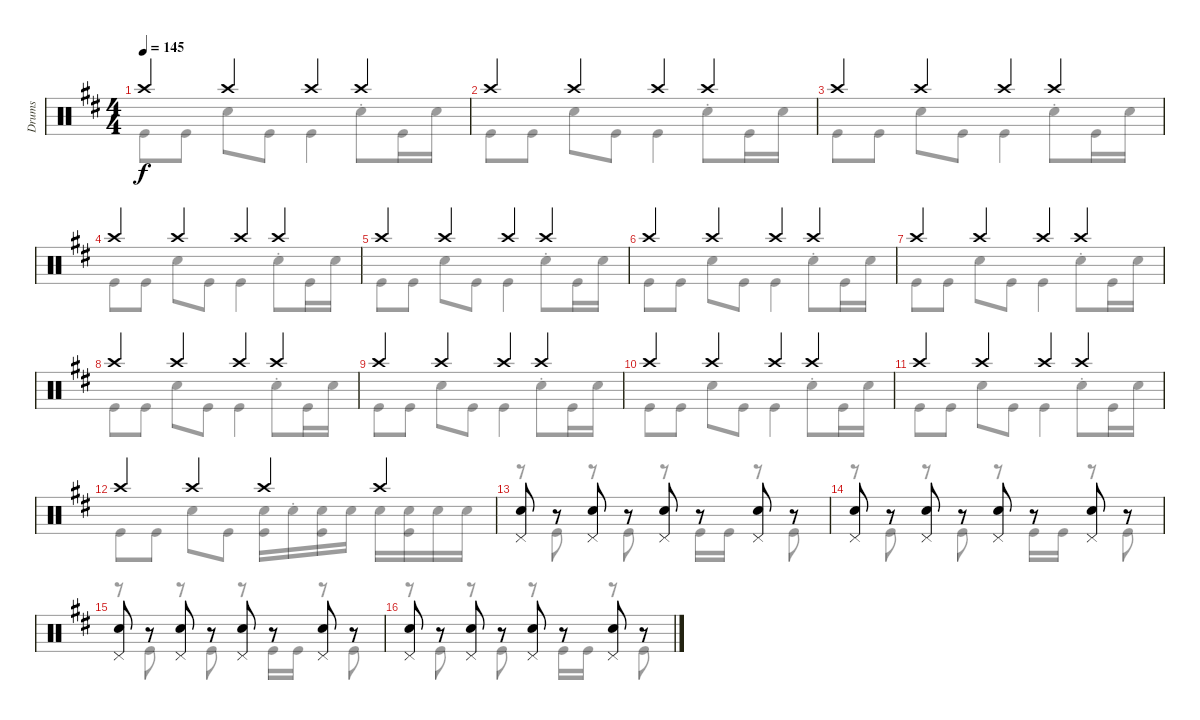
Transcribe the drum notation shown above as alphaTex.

\track ("Drums" "Drums") {instrument percussion}
\staff {score}
\articulation defaults
\voice
\ts (4 4)
\tempo 145
\clef neutral
\ks d "Crash high (hit)".4{dy f} "Crash high (hit)".4 "Crash high (hit)".4 "Crash high (hit)".4
|
"Crash high (hit)".4 "Crash high (hit)".4 "Crash high (hit)".4 "Crash high (hit)".4 |
"Crash high (hit)".4 "Crash high (hit)".4 "Crash high (hit)".4 "Crash high (hit)".4 |
"Crash high (hit)".4 "Crash high (hit)".4 "Crash high (hit)".4 "Crash high (hit)".4 |
"Crash high (hit)".4 "Crash high (hit)".4 "Crash high (hit)".4 "Crash high (hit)".4 |
"Crash high (hit)".4 "Crash high (hit)".4 "Crash high (hit)".4 "Crash high (hit)".4 |
"Crash high (hit)".4 "Crash high (hit)".4 "Crash high (hit)".4 "Crash high (hit)".4 |
"Crash high (hit)".4 "Crash high (hit)".4 "Crash high (hit)".4 "Crash high (hit)".4 |
"Crash high (hit)".4 "Crash high (hit)".4 "Crash high (hit)".4 "Crash high (hit)".4 |
"Crash high (hit)".4 "Crash high (hit)".4 "Crash high (hit)".4 "Crash high (hit)".4 |
"Crash high (hit)".4 "Crash high (hit)".4 "Crash high (hit)".4 "Crash high (hit)".4 |
"Crash high (hit)".4 "Crash high (hit)".4 "Crash high (hit)".4 "Crash high (hit)".4 |
("Pedal Hi-Hat (hit)" "Electric Snare (hit)").8 r.8 ("Pedal Hi-Hat (hit)" "Electric Snare (hit)").8 r.8 ("Pedal Hi-Hat (hit)" "Electric Snare (hit)").8 r.8 ("Pedal Hi-Hat (hit)" "Electric Snare (hit)").8 r.8 |
("Pedal Hi-Hat (hit)" "Electric Snare (hit)").8 r.8 ("Pedal Hi-Hat (hit)" "Electric Snare (hit)").8 r.8 ("Pedal Hi-Hat (hit)" "Electric Snare (hit)").8 r.8 ("Pedal Hi-Hat (hit)" "Electric Snare (hit)").8 r.8 |
("Pedal Hi-Hat (hit)" "Electric Snare (hit)").8 r.8 ("Pedal Hi-Hat (hit)" "Electric Snare (hit)").8 r.8 ("Pedal Hi-Hat (hit)" "Electric Snare (hit)").8 r.8 ("Pedal Hi-Hat (hit)" "Electric Snare (hit)").8 r.8 |
("Pedal Hi-Hat (hit)" "Electric Snare (hit)").8 r.8 ("Pedal Hi-Hat (hit)" "Electric Snare (hit)").8 r.8 ("Pedal Hi-Hat (hit)" "Electric Snare (hit)").8 r.8 ("Pedal Hi-Hat (hit)" "Electric Snare (hit)").8 r.8
\voice
\clef neutral
\ottava regular
\simile none
\ks d "Kick (hit)".8{dy f} "Kick (hit)".8 "Electric Snare (hit)".8 "Kick (hit)".8 "Kick (hit)".4 "Electric Snare (hit)"{st}.8 "Kick (hit)".16 "Electric Snare (hit)".16
|
"Kick (hit)".8 "Kick (hit)".8 "Electric Snare (hit)".8 "Kick (hit)".8 "Kick (hit)".4 "Electric Snare (hit)"{st}.8 "Kick (hit)".16 "Electric Snare (hit)".16 |
"Kick (hit)".8 "Kick (hit)".8 "Electric Snare (hit)".8 "Kick (hit)".8 "Kick (hit)".4 "Electric Snare (hit)"{st}.8 "Kick (hit)".16 "Electric Snare (hit)".16 |
"Kick (hit)".8 "Kick (hit)".8 "Electric Snare (hit)".8 "Kick (hit)".8 "Kick (hit)".4 "Electric Snare (hit)"{st}.8 "Kick (hit)".16 "Electric Snare (hit)".16 |
"Kick (hit)".8 "Kick (hit)".8 "Electric Snare (hit)".8 "Kick (hit)".8 "Kick (hit)".4 "Electric Snare (hit)"{st}.8 "Kick (hit)".16 "Electric Snare (hit)".16 |
"Kick (hit)".8 "Kick (hit)".8 "Electric Snare (hit)".8 "Kick (hit)".8 "Kick (hit)".4 "Electric Snare (hit)"{st}.8 "Kick (hit)".16 "Electric Snare (hit)".16 |
"Kick (hit)".8 "Kick (hit)".8 "Electric Snare (hit)".8 "Kick (hit)".8 "Kick (hit)".4 "Electric Snare (hit)"{st}.8 "Kick (hit)".16 "Electric Snare (hit)".16 |
"Kick (hit)".8 "Kick (hit)".8 "Electric Snare (hit)".8 "Kick (hit)".8 "Kick (hit)".4 "Electric Snare (hit)"{st}.8 "Kick (hit)".16 "Electric Snare (hit)".16 |
"Kick (hit)".8 "Kick (hit)".8 "Electric Snare (hit)".8 "Kick (hit)".8 "Kick (hit)".4 "Electric Snare (hit)"{st}.8 "Kick (hit)".16 "Electric Snare (hit)".16 |
"Kick (hit)".8 "Kick (hit)".8 "Electric Snare (hit)".8 "Kick (hit)".8 "Kick (hit)".4 "Electric Snare (hit)"{st}.8 "Kick (hit)".16 "Electric Snare (hit)".16 |
"Kick (hit)".8 "Kick (hit)".8 "Electric Snare (hit)".8 "Kick (hit)".8 "Kick (hit)".4 "Electric Snare (hit)"{st}.8 "Kick (hit)".16 "Electric Snare (hit)".16 |
"Kick (hit)".8 "Kick (hit)".8 "Electric Snare (hit)".8 "Kick (hit)".8 ("Electric Snare (hit)" "Kick (hit)").16 "Electric Snare (hit)"{st}.16 ("Electric Snare (hit)" "Kick (hit)").16 "Electric Snare (hit)".16 "Electric Snare (hit)".16 ("Electric Snare (hit)" "Kick (hit)").16 "Electric Snare (hit)".16 "Electric Snare (hit)".16 |
r.8 "Kick (hit)".8 r.8 "Kick (hit)".8 r.8 "Kick (hit)".16 "Kick (hit)".16 r.8 "Kick (hit)".8 |
r.8 "Kick (hit)".8 r.8 "Kick (hit)".8 r.8 "Kick (hit)".16 "Kick (hit)".16 r.8 "Kick (hit)".8 |
r.8 "Kick (hit)".8 r.8 "Kick (hit)".8 r.8 "Kick (hit)".16 "Kick (hit)".16 r.8 "Kick (hit)".8 |
r.8 "Kick (hit)".8 r.8 "Kick (hit)".8 r.8 "Kick (hit)".16 "Kick (hit)".16 r.8 "Kick (hit)".8
